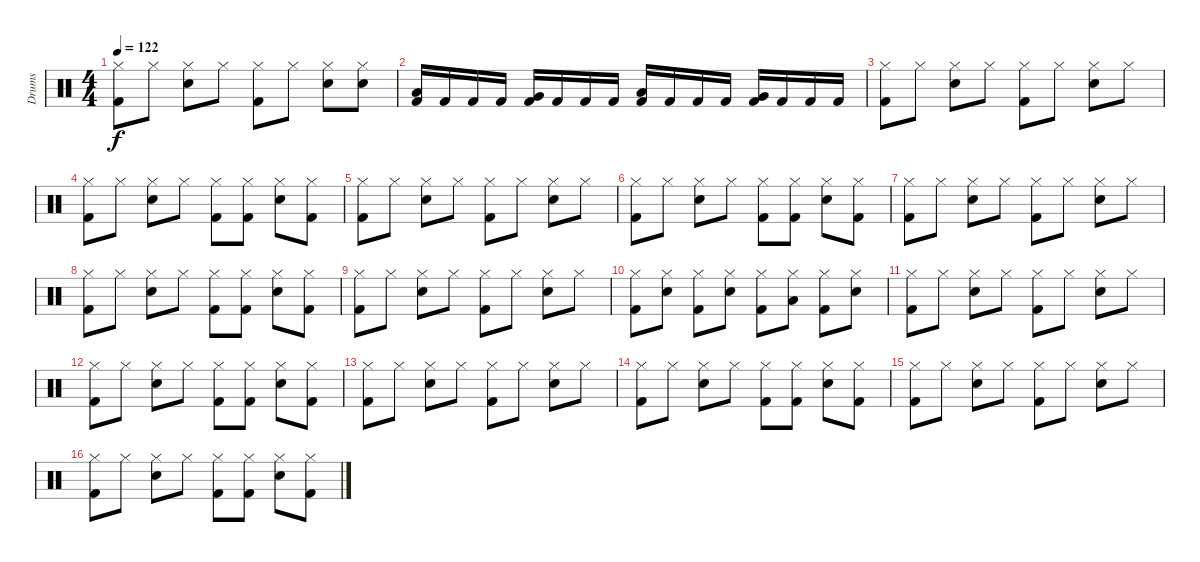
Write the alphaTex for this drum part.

\track ("Drums" "Drums") {instrument percussion}
\staff {score}
\articulation defaults
\ts (4 4)
\tempo 122
\clef neutral
\ks c
("Hi-Hat (closed)" "Kick (hit) 2").8{dy f} "Hi-Hat (closed)".8 ("Hi-Hat (closed)" "Electric Snare (hit)").8 "Hi-Hat (closed)".8 ("Hi-Hat (closed)" "Kick (hit) 2").8 "Hi-Hat (closed)".8 ("Hi-Hat (closed)" "Electric Snare (hit)").8 ("Hi-Hat (closed)" "Electric Snare (hit)").8 |
("Low Floor Tom (hit)" "Kick (hit) 2").16 "Kick (hit) 2".16 "Kick (hit) 2".16 "Kick (hit) 2".16 ("Very Low Tom (hit)" "Kick (hit) 2").16 "Kick (hit) 2".16 "Kick (hit) 2".16 "Kick (hit) 2".16 ("Low Floor Tom (hit)" "Kick (hit) 2").16 "Kick (hit) 2".16 "Kick (hit) 2".16 "Kick (hit) 2".16 ("Very Low Tom (hit)" "Kick (hit) 2").16 "Kick (hit) 2".16 "Kick (hit) 2".16 "Kick (hit) 2".16 |
("Hi-Hat (closed)" "Kick (hit) 2").8 "Hi-Hat (closed)".8 ("Hi-Hat (closed)" "Electric Snare (hit)").8 "Hi-Hat (closed)".8 ("Hi-Hat (closed)" "Kick (hit) 2").8 "Hi-Hat (closed)".8 ("Hi-Hat (closed)" "Electric Snare (hit)").8 "Hi-Hat (closed)".8 |
("Hi-Hat (closed)" "Kick (hit) 2").8 "Hi-Hat (closed)".8 ("Hi-Hat (closed)" "Electric Snare (hit)").8 "Hi-Hat (closed)".8 ("Hi-Hat (closed)" "Kick (hit) 2").8 ("Hi-Hat (closed)" "Kick (hit) 2").8 ("Hi-Hat (closed)" "Electric Snare (hit)").8 ("Hi-Hat (closed)" "Kick (hit) 2").8 |
("Hi-Hat (closed)" "Kick (hit) 2").8 "Hi-Hat (closed)".8 ("Hi-Hat (closed)" "Electric Snare (hit)").8 "Hi-Hat (closed)".8 ("Hi-Hat (closed)" "Kick (hit) 2").8 "Hi-Hat (closed)".8 ("Hi-Hat (closed)" "Electric Snare (hit)").8 "Hi-Hat (closed)".8 |
("Hi-Hat (closed)" "Kick (hit) 2").8 "Hi-Hat (closed)".8 ("Hi-Hat (closed)" "Electric Snare (hit)").8 "Hi-Hat (closed)".8 ("Hi-Hat (closed)" "Kick (hit) 2").8 ("Hi-Hat (closed)" "Kick (hit) 2").8 ("Hi-Hat (closed)" "Electric Snare (hit)").8 ("Hi-Hat (closed)" "Kick (hit) 2").8 |
("Hi-Hat (closed)" "Kick (hit) 2").8 "Hi-Hat (closed)".8 ("Hi-Hat (closed)" "Electric Snare (hit)").8 "Hi-Hat (closed)".8 ("Hi-Hat (closed)" "Kick (hit) 2").8 "Hi-Hat (closed)".8 ("Hi-Hat (closed)" "Electric Snare (hit)").8 "Hi-Hat (closed)".8 |
("Hi-Hat (closed)" "Kick (hit) 2").8 "Hi-Hat (closed)".8 ("Hi-Hat (closed)" "Electric Snare (hit)").8 "Hi-Hat (closed)".8 ("Hi-Hat (closed)" "Kick (hit) 2").8 ("Hi-Hat (closed)" "Kick (hit) 2").8 ("Hi-Hat (closed)" "Electric Snare (hit)").8 ("Hi-Hat (closed)" "Kick (hit) 2").8 |
("Hi-Hat (closed)" "Kick (hit) 2").8 "Hi-Hat (closed)".8 ("Hi-Hat (closed)" "Electric Snare (hit)").8 "Hi-Hat (closed)".8 ("Hi-Hat (closed)" "Kick (hit) 2").8 "Hi-Hat (closed)".8 ("Hi-Hat (closed)" "Electric Snare (hit)").8 "Hi-Hat (closed)".8 |
("Hi-Hat (closed)" "Kick (hit) 2").8 ("Hi-Hat (closed)" "Electric Snare (hit)").8 ("Hi-Hat (closed)" "Kick (hit) 2").8 ("Hi-Hat (closed)" "Electric Snare (hit)").8 ("Hi-Hat (closed)" "Kick (hit) 2").8 ("Hi-Hat (closed)" "Low Floor Tom (hit)").8 ("Hi-Hat (closed)" "Kick (hit) 2").8 ("Hi-Hat (closed)" "Electric Snare (hit)").8 |
("Hi-Hat (closed)" "Kick (hit) 2").8 "Hi-Hat (closed)".8 ("Hi-Hat (closed)" "Electric Snare (hit)").8 "Hi-Hat (closed)".8 ("Hi-Hat (closed)" "Kick (hit) 2").8 "Hi-Hat (closed)".8 ("Hi-Hat (closed)" "Electric Snare (hit)").8 "Hi-Hat (closed)".8 |
("Hi-Hat (closed)" "Kick (hit) 2").8 "Hi-Hat (closed)".8 ("Hi-Hat (closed)" "Electric Snare (hit)").8 "Hi-Hat (closed)".8 ("Hi-Hat (closed)" "Kick (hit) 2").8 ("Hi-Hat (closed)" "Kick (hit) 2").8 ("Hi-Hat (closed)" "Electric Snare (hit)").8 ("Hi-Hat (closed)" "Kick (hit) 2").8 |
("Hi-Hat (closed)" "Kick (hit) 2").8 "Hi-Hat (closed)".8 ("Hi-Hat (closed)" "Electric Snare (hit)").8 "Hi-Hat (closed)".8 ("Hi-Hat (closed)" "Kick (hit) 2").8 "Hi-Hat (closed)".8 ("Hi-Hat (closed)" "Electric Snare (hit)").8 "Hi-Hat (closed)".8 |
("Hi-Hat (closed)" "Kick (hit) 2").8 "Hi-Hat (closed)".8 ("Hi-Hat (closed)" "Electric Snare (hit)").8 "Hi-Hat (closed)".8 ("Hi-Hat (closed)" "Kick (hit) 2").8 ("Hi-Hat (closed)" "Kick (hit) 2").8 ("Hi-Hat (closed)" "Electric Snare (hit)").8 ("Hi-Hat (closed)" "Kick (hit) 2").8 |
("Hi-Hat (closed)" "Kick (hit) 2").8 "Hi-Hat (closed)".8 ("Hi-Hat (closed)" "Electric Snare (hit)").8 "Hi-Hat (closed)".8 ("Hi-Hat (closed)" "Kick (hit) 2").8 "Hi-Hat (closed)".8 ("Hi-Hat (closed)" "Electric Snare (hit)").8 "Hi-Hat (closed)".8 |
("Hi-Hat (closed)" "Kick (hit) 2").8 "Hi-Hat (closed)".8 ("Hi-Hat (closed)" "Electric Snare (hit)").8 "Hi-Hat (closed)".8 ("Hi-Hat (closed)" "Kick (hit) 2").8 ("Hi-Hat (closed)" "Kick (hit) 2").8 ("Hi-Hat (closed)" "Electric Snare (hit)").8 ("Hi-Hat (closed)" "Kick (hit) 2").8
